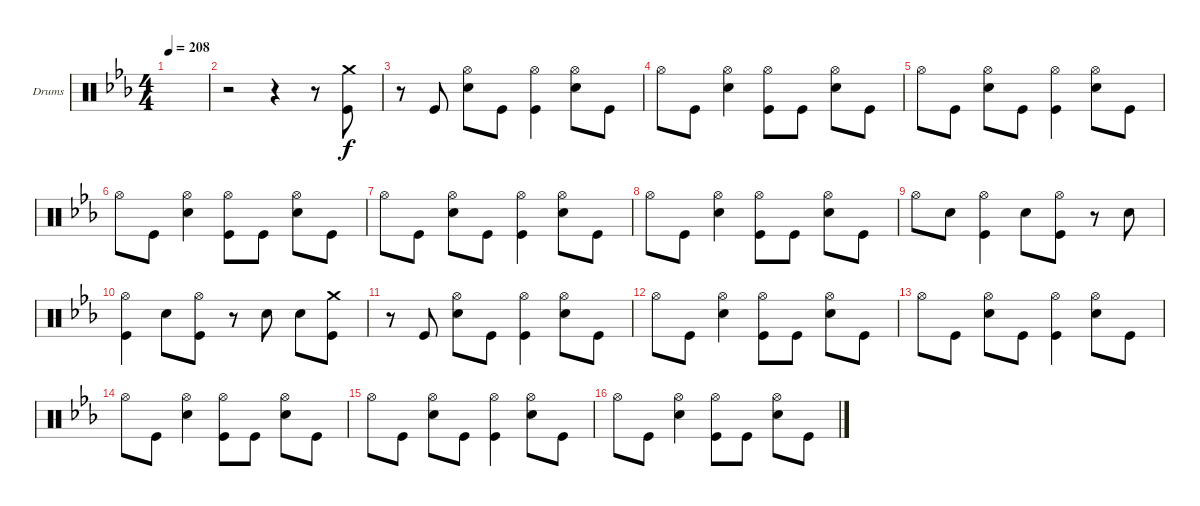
\defaultSystemsLayout 4
\bracketExtendMode groupsimilarinstruments
\firstSystemTrackNameOrientation horizontal
\otherSystemsTrackNameOrientation horizontal
\track ("Drumkit" "Drums") {instrument percussion}
\staff {score}
\articulation defaults
\ts (4 4)
\tempo 208
\clef neutral
\ks eb
|
r.2 r.4 r.8 ("Crash medium (hit)" "Kick (hit)").8 |
r.8 "Kick (hit)".8 ("Hi-Hat (open)" "Snare (hit) 2").8 "Kick (hit)".8 ("Hi-Hat (open)" "Kick (hit)").4 ("Hi-Hat (open)" "Snare (hit) 2").8 "Kick (hit)".8 |
"Hi-Hat (open)".8 "Kick (hit)".8 ("Hi-Hat (open)" "Snare (hit) 2").4 ("Hi-Hat (open)" "Kick (hit)").8 "Kick (hit)".8 ("Hi-Hat (open)" "Snare (hit) 2").8 "Kick (hit)".8 |
"Hi-Hat (open)".8 "Kick (hit)".8 ("Hi-Hat (open)" "Snare (hit) 2").8 "Kick (hit)".8 ("Hi-Hat (open)" "Kick (hit)").4 ("Hi-Hat (open)" "Snare (hit) 2").8 "Kick (hit)".8 |
"Hi-Hat (open)".8 "Kick (hit)".8 ("Hi-Hat (open)" "Snare (hit) 2").4 ("Hi-Hat (open)" "Kick (hit)").8 "Kick (hit)".8 ("Hi-Hat (open)" "Snare (hit) 2").8 "Kick (hit)".8 |
"Hi-Hat (open)".8 "Kick (hit)".8 ("Hi-Hat (open)" "Snare (hit) 2").8 "Kick (hit)".8 ("Hi-Hat (open)" "Kick (hit)").4 ("Hi-Hat (open)" "Snare (hit) 2").8 "Kick (hit)".8 |
"Hi-Hat (open)".8 "Kick (hit)".8 ("Hi-Hat (open)" "Snare (hit) 2").4 ("Hi-Hat (open)" "Kick (hit)").8 "Kick (hit)".8 ("Hi-Hat (open)" "Snare (hit) 2").8 "Kick (hit)".8 |
"Hi-Hat (open)".8 "Snare (hit) 2".8 ("Hi-Hat (open)" "Kick (hit)").4 "Snare (hit) 2".8 ("Hi-Hat (open)" "Kick (hit)").8 r.8 "Snare (hit) 2".8 |
("Hi-Hat (open)" "Kick (hit)").4 "Snare (hit) 2".8 ("Hi-Hat (open)" "Kick (hit)").8 r.8 "Snare (hit) 2".8 "Snare (hit) 2".8 ("Crash medium (hit)" "Kick (hit)").8 |
r.8 "Kick (hit)".8 ("Hi-Hat (open)" "Snare (hit) 2").8 "Kick (hit)".8 ("Hi-Hat (open)" "Kick (hit)").4 ("Hi-Hat (open)" "Snare (hit) 2").8 "Kick (hit)".8 |
"Hi-Hat (open)".8 "Kick (hit)".8 ("Hi-Hat (open)" "Snare (hit) 2").4 ("Hi-Hat (open)" "Kick (hit)").8 "Kick (hit)".8 ("Hi-Hat (open)" "Snare (hit) 2").8 "Kick (hit)".8 |
"Hi-Hat (open)".8 "Kick (hit)".8 ("Hi-Hat (open)" "Snare (hit) 2").8 "Kick (hit)".8 ("Hi-Hat (open)" "Kick (hit)").4 ("Hi-Hat (open)" "Snare (hit) 2").8 "Kick (hit)".8 |
"Hi-Hat (open)".8 "Kick (hit)".8 ("Hi-Hat (open)" "Snare (hit) 2").4 ("Hi-Hat (open)" "Kick (hit)").8 "Kick (hit)".8 ("Hi-Hat (open)" "Snare (hit) 2").8 "Kick (hit)".8 |
"Hi-Hat (open)".8 "Kick (hit)".8 ("Hi-Hat (open)" "Snare (hit) 2").8 "Kick (hit)".8 ("Hi-Hat (open)" "Kick (hit)").4 ("Hi-Hat (open)" "Snare (hit) 2").8 "Kick (hit)".8 |
"Hi-Hat (open)".8 "Kick (hit)".8 ("Hi-Hat (open)" "Snare (hit) 2").4 ("Hi-Hat (open)" "Kick (hit)").8 "Kick (hit)".8 ("Hi-Hat (open)" "Snare (hit) 2").8 "Kick (hit)".8
